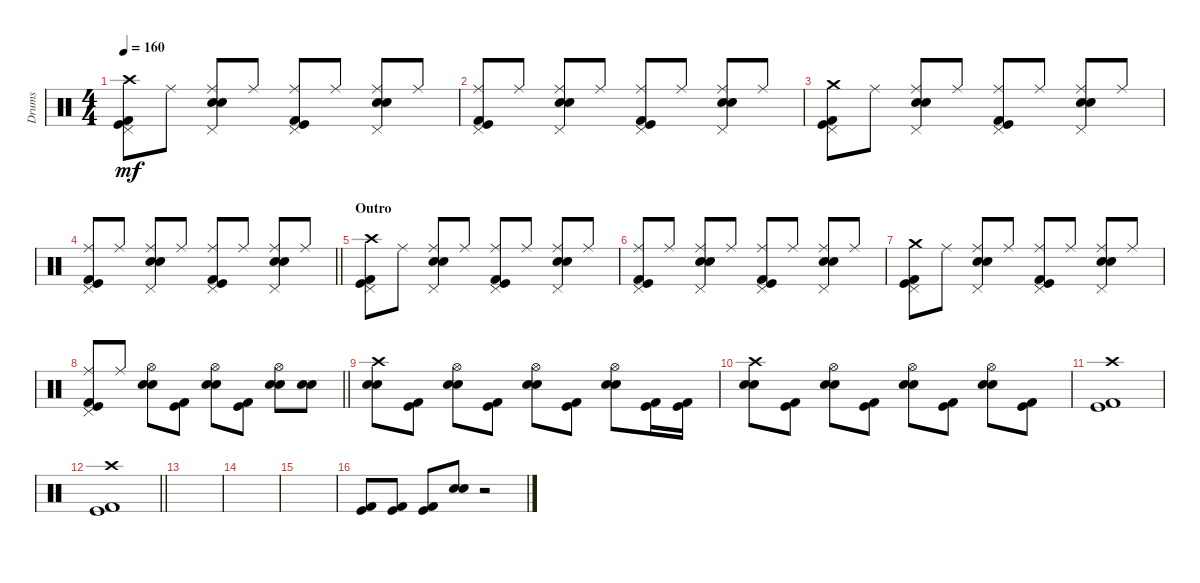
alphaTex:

\track ("Drums" "Drums") {instrument percussion}
\staff {score}
\articulation defaults
\ts (4 4)
\tempo 160
\clef neutral
\ks c
("Crash high (hit)" "Pedal Hi-Hat (hit)" "Kick (hit) 2" "Kick (hit)").8{dy mf} "Ride (middle)".8 ("Ride (middle)" "Pedal Hi-Hat (hit)" "Snare (hit) 2" "Electric Snare (hit)").8 "Ride (middle)".8 ("Ride (middle)" "Pedal Hi-Hat (hit)" "Kick (hit) 2" "Kick (hit)").8 "Ride (middle)".8 ("Ride (middle)" "Pedal Hi-Hat (hit)" "Snare (hit) 2" "Electric Snare (hit)").8 "Ride (middle)".8 |
("Ride (middle)" "Pedal Hi-Hat (hit)" "Kick (hit) 2" "Kick (hit)").8 "Ride (middle)".8 ("Ride (middle)" "Pedal Hi-Hat (hit)" "Snare (hit) 2" "Electric Snare (hit)").8 "Ride (middle)".8 ("Ride (middle)" "Pedal Hi-Hat (hit)" "Kick (hit) 2" "Kick (hit)").8 "Ride (middle)".8 ("Ride (middle)" "Pedal Hi-Hat (hit)" "Snare (hit) 2" "Electric Snare (hit)").8 "Ride (middle)".8 |
("Crash medium (hit)" "Pedal Hi-Hat (hit)" "Kick (hit) 2" "Kick (hit)").8 "Ride (middle)".8 ("Ride (middle)" "Pedal Hi-Hat (hit)" "Snare (hit) 2" "Electric Snare (hit)").8 "Ride (middle)".8 ("Ride (middle)" "Pedal Hi-Hat (hit)" "Kick (hit) 2" "Kick (hit)").8 "Ride (middle)".8 ("Ride (middle)" "Pedal Hi-Hat (hit)" "Snare (hit) 2" "Electric Snare (hit)").8 "Ride (middle)".8 |
\barLineRight lightlight
("Ride (middle)" "Pedal Hi-Hat (hit)" "Kick (hit) 2" "Kick (hit)").8 "Ride (middle)".8 ("Ride (middle)" "Pedal Hi-Hat (hit)" "Snare (hit) 2" "Electric Snare (hit)").8 "Ride (middle)".8 ("Ride (middle)" "Pedal Hi-Hat (hit)" "Kick (hit) 2" "Kick (hit)").8 "Ride (middle)".8 ("Ride (middle)" "Pedal Hi-Hat (hit)" "Snare (hit) 2" "Electric Snare (hit)").8 "Ride (middle)".8 |
\section ("" "Outro")
("Crash high (hit)" "Pedal Hi-Hat (hit)" "Kick (hit) 2" "Kick (hit)").8 "Ride (middle)".8 ("Ride (middle)" "Pedal Hi-Hat (hit)" "Snare (hit) 2" "Electric Snare (hit)").8 "Ride (middle)".8 ("Ride (middle)" "Pedal Hi-Hat (hit)" "Kick (hit) 2" "Kick (hit)").8 "Ride (middle)".8 ("Ride (middle)" "Pedal Hi-Hat (hit)" "Snare (hit) 2" "Electric Snare (hit)").8 "Ride (middle)".8 |
("Ride (middle)" "Pedal Hi-Hat (hit)" "Kick (hit) 2" "Kick (hit)").8 "Ride (middle)".8 ("Ride (middle)" "Pedal Hi-Hat (hit)" "Snare (hit) 2" "Electric Snare (hit)").8 "Ride (middle)".8 ("Ride (middle)" "Pedal Hi-Hat (hit)" "Kick (hit) 2" "Kick (hit)").8 "Ride (middle)".8 ("Ride (middle)" "Pedal Hi-Hat (hit)" "Snare (hit) 2" "Electric Snare (hit)").8 "Ride (middle)".8 |
("Crash medium (hit)" "Pedal Hi-Hat (hit)" "Kick (hit) 2" "Kick (hit)").8 "Ride (middle)".8 ("Ride (middle)" "Pedal Hi-Hat (hit)" "Snare (hit) 2" "Electric Snare (hit)").8 "Ride (middle)".8 ("Ride (middle)" "Pedal Hi-Hat (hit)" "Kick (hit) 2" "Kick (hit)").8 "Ride (middle)".8 ("Ride (middle)" "Pedal Hi-Hat (hit)" "Snare (hit) 2" "Electric Snare (hit)").8 "Ride (middle)".8 |
\barLineRight lightlight
("Ride (middle)" "Pedal Hi-Hat (hit)" "Kick (hit) 2" "Kick (hit)").8 "Ride (middle)".8 ("Hi-Hat (open)" "Snare (hit) 2" "Electric Snare (hit)").8 ("Kick (hit) 2" "Kick (hit)").8 ("Hi-Hat (open)" "Snare (hit) 2" "Electric Snare (hit)").8 ("Kick (hit) 2" "Kick (hit)").8 ("Hi-Hat (open)" "Snare (hit) 2" "Electric Snare (hit)").8 ("Snare (hit) 2" "Electric Snare (hit)").8 |
("Crash high (hit)" "Snare (hit) 2" "Electric Snare (hit)").8 ("Kick (hit) 2" "Kick (hit)").8 ("Hi-Hat (open)" "Snare (hit) 2" "Electric Snare (hit)").8 ("Kick (hit) 2" "Kick (hit)").8 ("Hi-Hat (open)" "Snare (hit) 2" "Electric Snare (hit)").8 ("Kick (hit) 2" "Kick (hit)").8 ("Hi-Hat (open)" "Snare (hit) 2" "Electric Snare (hit)").8 ("Kick (hit) 2" "Kick (hit)").16 ("Kick (hit) 2" "Kick (hit)").16 |
("Crash high (hit)" "Snare (hit) 2" "Electric Snare (hit)").8 ("Kick (hit) 2" "Kick (hit)").8 ("Hi-Hat (open)" "Snare (hit) 2" "Electric Snare (hit)").8 ("Kick (hit) 2" "Kick (hit)").8 ("Hi-Hat (open)" "Snare (hit) 2" "Electric Snare (hit)").8 ("Kick (hit) 2" "Kick (hit)").8 ("Hi-Hat (open)" "Snare (hit) 2" "Electric Snare (hit)").8 ("Kick (hit) 2" "Kick (hit)").8 |
("Crash high (hit)" "Kick (hit) 2" "Kick (hit)").1 |
\barLineRight lightlight
("Crash high (hit)" "Kick (hit) 2" "Kick (hit)").1 |
|
|
|
("Kick (hit) 2" "Kick (hit)").8 ("Kick (hit) 2" "Kick (hit)").8 ("Kick (hit) 2" "Kick (hit)").8 ("Snare (hit) 2" "Electric Snare (hit)").8 r.2
